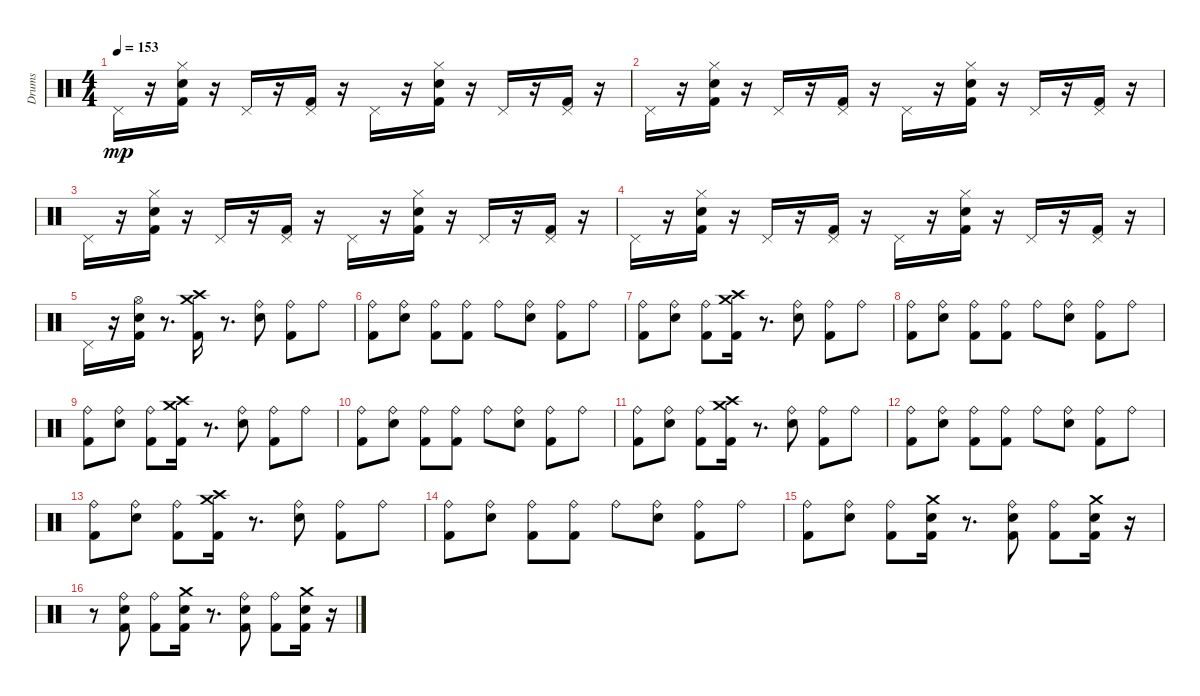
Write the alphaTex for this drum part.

\track ("Drums" "Drums") {instrument percussion}
\staff {score}
\articulation defaults
\ts (4 4)
\tempo 153
\clef neutral
\ks c "Pedal Hi-Hat (hit)".16{dy mp}
r.16 ("Hi-Hat (closed)" "Kick (hit) 2" "Electric Snare (hit)").16 r.16 "Pedal Hi-Hat (hit)".16 r.16 ("Pedal Hi-Hat (hit)" "Kick (hit) 2").16 r.16 "Pedal Hi-Hat (hit)".16 r.16 ("Hi-Hat (closed)" "Electric Snare (hit)" "Kick (hit) 2").16 r.16 "Pedal Hi-Hat (hit)".16 r.16 ("Pedal Hi-Hat (hit)" "Kick (hit) 2").16 r.16 |
"Pedal Hi-Hat (hit)".16 r.16 ("Hi-Hat (closed)" "Electric Snare (hit)" "Kick (hit) 2").16 r.16 "Pedal Hi-Hat (hit)".16 r.16 ("Pedal Hi-Hat (hit)" "Kick (hit) 2").16 r.16 "Pedal Hi-Hat (hit)".16 r.16 ("Hi-Hat (closed)" "Electric Snare (hit)" "Kick (hit) 2").16 r.16 "Pedal Hi-Hat (hit)".16 r.16 ("Pedal Hi-Hat (hit)" "Kick (hit) 2").16 r.16 |
"Pedal Hi-Hat (hit)".16 r.16 ("Hi-Hat (closed)" "Electric Snare (hit)" "Kick (hit) 2").16 r.16 "Pedal Hi-Hat (hit)".16 r.16 ("Pedal Hi-Hat (hit)" "Kick (hit) 2").16 r.16 "Pedal Hi-Hat (hit)".16 r.16 ("Hi-Hat (closed)" "Electric Snare (hit)" "Kick (hit) 2").16 r.16 "Pedal Hi-Hat (hit)".16 r.16 ("Pedal Hi-Hat (hit)" "Kick (hit) 2").16 r.16 |
"Pedal Hi-Hat (hit)".16 r.16 ("Hi-Hat (closed)" "Electric Snare (hit)" "Kick (hit) 2").16 r.16 "Pedal Hi-Hat (hit)".16 r.16 ("Pedal Hi-Hat (hit)" "Kick (hit) 2").16 r.16 "Pedal Hi-Hat (hit)".16 r.16 ("Hi-Hat (closed)" "Electric Snare (hit)" "Kick (hit) 2").16 r.16 "Pedal Hi-Hat (hit)".16 r.16 ("Pedal Hi-Hat (hit)" "Kick (hit) 2").16 r.16 |
"Pedal Hi-Hat (hit)".16 r.16 ("Hi-Hat (open)" "Electric Snare (hit)" "Kick (hit) 2").16 r.8{d} ("Crash medium (hit)" "Kick (hit) 2" "Crash high (hit)").16 r.8{d} ("Electric Snare (hit)" "Ride (bell)").8 ("Kick (hit) 2" "Ride (bell)").8 "Ride (bell)".8 |
("Kick (hit) 2" "Ride (bell)").8 ("Electric Snare (hit)" "Ride (bell)").8 ("Kick (hit) 2" "Ride (bell)").8 ("Kick (hit) 2" "Ride (bell)").8 "Ride (bell)".8 ("Electric Snare (hit)" "Ride (bell)").8 ("Kick (hit) 2" "Ride (bell)").8 "Ride (bell)".8 |
("Kick (hit) 2" "Ride (bell)").8 ("Electric Snare (hit)" "Ride (bell)").8 ("Kick (hit) 2" "Ride (bell)").8 ("Crash medium (hit)" "Crash high (hit)" "Kick (hit) 2").16 r.8{d} ("Electric Snare (hit)" "Ride (bell)").8 ("Kick (hit) 2" "Ride (bell)").8 "Ride (bell)".8 |
("Kick (hit) 2" "Ride (bell)").8 ("Electric Snare (hit)" "Ride (bell)").8 ("Kick (hit) 2" "Ride (bell)").8 ("Kick (hit) 2" "Ride (bell)").8 "Ride (bell)".8 ("Electric Snare (hit)" "Ride (bell)").8 ("Kick (hit) 2" "Ride (bell)").8 "Ride (bell)".8 |
("Kick (hit) 2" "Ride (bell)").8 ("Electric Snare (hit)" "Ride (bell)").8 ("Kick (hit) 2" "Ride (bell)").8 ("Crash medium (hit)" "Crash high (hit)" "Kick (hit) 2").16 r.8{d} ("Electric Snare (hit)" "Ride (bell)").8 ("Kick (hit) 2" "Ride (bell)").8 "Ride (bell)".8 |
("Kick (hit) 2" "Ride (bell)").8 ("Electric Snare (hit)" "Ride (bell)").8 ("Kick (hit) 2" "Ride (bell)").8 ("Kick (hit) 2" "Ride (bell)").8 "Ride (bell)".8 ("Electric Snare (hit)" "Ride (bell)").8 ("Kick (hit) 2" "Ride (bell)").8 "Ride (bell)".8 |
("Kick (hit) 2" "Ride (bell)").8 ("Electric Snare (hit)" "Ride (bell)").8 ("Kick (hit) 2" "Ride (bell)").8 ("Crash medium (hit)" "Crash high (hit)" "Kick (hit) 2").16 r.8{d} ("Electric Snare (hit)" "Ride (bell)").8 ("Kick (hit) 2" "Ride (bell)").8 "Ride (bell)".8 |
("Kick (hit) 2" "Ride (bell)").8 ("Electric Snare (hit)" "Ride (bell)").8 ("Kick (hit) 2" "Ride (bell)").8 ("Kick (hit) 2" "Ride (bell)").8 "Ride (bell)".8 ("Electric Snare (hit)" "Ride (bell)").8 ("Kick (hit) 2" "Ride (bell)").8 "Ride (bell)".8 |
("Kick (hit) 2" "Ride (bell)").8 ("Electric Snare (hit)" "Ride (bell)").8 ("Kick (hit) 2" "Ride (bell)").8 ("Crash medium (hit)" "Crash high (hit)" "Kick (hit) 2").16 r.8{d} ("Electric Snare (hit)" "Ride (bell)").8 ("Kick (hit) 2" "Ride (bell)").8 "Ride (bell)".8 |
("Kick (hit) 2" "Ride (bell)").8 ("Electric Snare (hit)" "Ride (bell)").8 ("Kick (hit) 2" "Ride (bell)").8 ("Kick (hit) 2" "Ride (bell)").8 "Ride (bell)".8 ("Electric Snare (hit)" "Ride (bell)").8 ("Kick (hit) 2" "Ride (bell)").8 "Ride (bell)".8 |
("Kick (hit) 2" "Ride (bell)").8 ("Electric Snare (hit)" "Ride (bell)").8 ("Kick (hit) 2" "Ride (bell)").8 ("Kick (hit) 2" "Crash medium (hit)" "Electric Snare (hit)").16 r.8{d} ("Kick (hit) 2" "Electric Snare (hit)" "Ride (bell)").8 ("Kick (hit) 2" "Ride (bell)").8 ("Electric Snare (hit)" "Crash medium (hit)" "Kick (hit) 2").16 r.16 |
r.8 ("Kick (hit) 2" "Electric Snare (hit)" "Ride (bell)").8 ("Kick (hit) 2" "Ride (bell)").8 ("Electric Snare (hit)" "Crash medium (hit)" "Kick (hit) 2").16 r.8{d} ("Electric Snare (hit)" "Kick (hit) 2" "Ride (bell)").8 ("Kick (hit) 2" "Ride (bell)").8 ("Electric Snare (hit)" "Crash medium (hit)" "Kick (hit) 2").16 r.16
